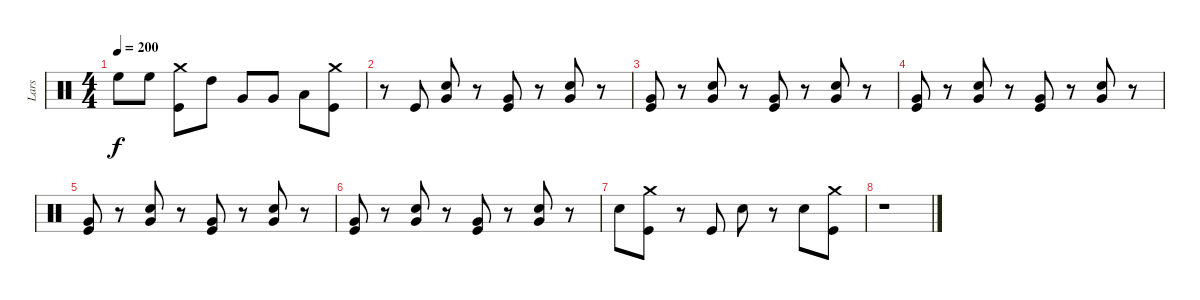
\track ("Lars" "Lars") {instrument percussion}
\staff {score}
\articulation defaults
\ts (4 4)
\tempo 200
\clef neutral
\ks c "High Floor Tom (hit)".8{dy f} "High Floor Tom (hit)".8
("Crash medium (hit)" "Kick (hit)").8 "High Tom (hit)".8 "Very Low Tom (hit)".8 "Very Low Tom (hit)".8 "Low Floor Tom (hit)".8 ("Crash medium (hit)" "Kick (hit)").8 |
r.8 "Kick (hit)".8 ("Very Low Tom (hit)" "Snare (hit) 2").8 r.8 ("Kick (hit)" "Very Low Tom (hit)").8 r.8 ("Snare (hit) 2" "Very Low Tom (hit)").8 r.8 |
("Very Low Tom (hit)" "Kick (hit)").8 r.8 ("Very Low Tom (hit)" "Snare (hit) 2").8 r.8 ("Very Low Tom (hit)" "Kick (hit)").8 r.8 ("Very Low Tom (hit)" "Snare (hit) 2").8 r.8 |
("Very Low Tom (hit)" "Kick (hit)").8 r.8 ("Very Low Tom (hit)" "Snare (hit) 2").8 r.8 ("Very Low Tom (hit)" "Kick (hit)").8 r.8 ("Very Low Tom (hit)" "Snare (hit) 2").8 r.8 |
("Very Low Tom (hit)" "Kick (hit)").8 r.8 ("Very Low Tom (hit)" "Snare (hit) 2").8 r.8 ("Very Low Tom (hit)" "Kick (hit)").8 r.8 ("Very Low Tom (hit)" "Snare (hit) 2").8 r.8 |
("Very Low Tom (hit)" "Kick (hit)").8 r.8 ("Very Low Tom (hit)" "Snare (hit) 2").8 r.8 ("Very Low Tom (hit)" "Kick (hit)").8 r.8 ("Very Low Tom (hit)" "Snare (hit) 2").8 r.8 |
"Snare (hit) 2".8 ("Crash medium (hit)" "Kick (hit)").8 r.8 "Kick (hit)".8 "Snare (hit) 2".8 r.8 "Snare (hit) 2".8 ("Crash medium (hit)" "Kick (hit)").8 |
r.1
